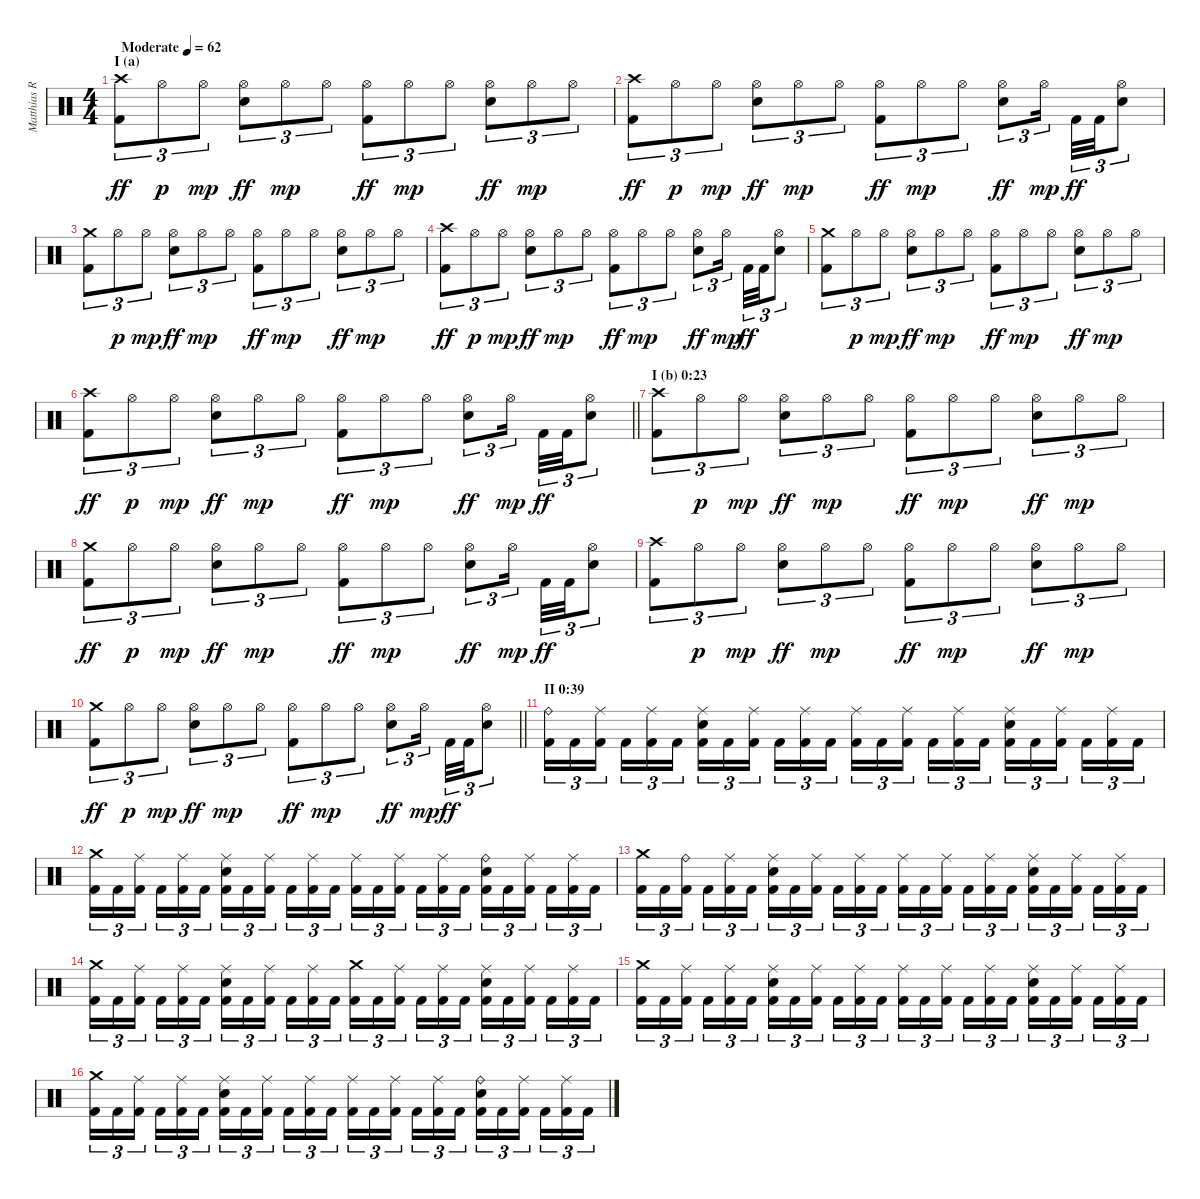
\track ("Matthias R." "Matthias R") {instrument percussion}
\staff {score}
\articulation defaults
\ts (4 4)
\section ("" "I (a)")
\tempo (62 "Moderate")
\clef neutral
\ks c
("Crash high (hit)" "Kick (hit) 2").8{tu (3 2) dy ff} "Hi-Hat (open)".8{tu (3 2) dy p} "Hi-Hat (open)".8{tu (3 2) dy mp} ("Hi-Hat (open)" "Electric Snare (hit)").8{tu (3 2) dy ff} "Hi-Hat (open)".8{tu (3 2) dy mp} "Hi-Hat (open)".8{tu (3 2)} ("Hi-Hat (open)" "Kick (hit) 2").8{tu (3 2) dy ff} "Hi-Hat (open)".8{tu (3 2) dy mp} "Hi-Hat (open)".8{tu (3 2)} ("Hi-Hat (open)" "Electric Snare (hit)").8{tu (3 2) dy ff} "Hi-Hat (open)".8{tu (3 2) dy mp} "Hi-Hat (open)".8{tu (3 2)} |
("Crash high (hit)" "Kick (hit) 2").8{tu (3 2) dy ff} "Hi-Hat (open)".8{tu (3 2) dy p} "Hi-Hat (open)".8{tu (3 2) dy mp} ("Hi-Hat (open)" "Electric Snare (hit)").8{tu (3 2) dy ff} "Hi-Hat (open)".8{tu (3 2) dy mp} "Hi-Hat (open)".8{tu (3 2)} ("Hi-Hat (open)" "Kick (hit) 2").8{tu (3 2) dy ff} "Hi-Hat (open)".8{tu (3 2) dy mp} "Hi-Hat (open)".8{tu (3 2)} ("Hi-Hat (open)" "Electric Snare (hit)").8{tu (3 2) dy ff} "Hi-Hat (open)".16{tu (3 2) dy mp beam splitsecondary} "Kick (hit) 2".32{tu (3 2) dy ff} "Kick (hit) 2".32{tu (3 2)} ("Hi-Hat (open)" "Electric Snare (hit)").8{tu (3 2)} |
("Crash medium (hit)" "Kick (hit) 2").8{tu (3 2)} "Hi-Hat (open)".8{tu (3 2) dy p} "Hi-Hat (open)".8{tu (3 2) dy mp} ("Hi-Hat (open)" "Electric Snare (hit)").8{tu (3 2) dy ff} "Hi-Hat (open)".8{tu (3 2) dy mp} "Hi-Hat (open)".8{tu (3 2)} ("Hi-Hat (open)" "Kick (hit) 2").8{tu (3 2) dy ff} "Hi-Hat (open)".8{tu (3 2) dy mp} "Hi-Hat (open)".8{tu (3 2)} ("Hi-Hat (open)" "Electric Snare (hit)").8{tu (3 2) dy ff} "Hi-Hat (open)".8{tu (3 2) dy mp} "Hi-Hat (open)".8{tu (3 2)} |
("Crash high (hit)" "Kick (hit) 2").8{tu (3 2) dy ff} "Hi-Hat (open)".8{tu (3 2) dy p} "Hi-Hat (open)".8{tu (3 2) dy mp} ("Hi-Hat (open)" "Electric Snare (hit)").8{tu (3 2) dy ff} "Hi-Hat (open)".8{tu (3 2) dy mp} "Hi-Hat (open)".8{tu (3 2)} ("Hi-Hat (open)" "Kick (hit) 2").8{tu (3 2) dy ff} "Hi-Hat (open)".8{tu (3 2) dy mp} "Hi-Hat (open)".8{tu (3 2)} ("Hi-Hat (open)" "Electric Snare (hit)").8{tu (3 2) dy ff} "Hi-Hat (open)".16{tu (3 2) dy mp beam splitsecondary} "Kick (hit) 2".32{tu (3 2) dy ff} "Kick (hit) 2".32{tu (3 2)} ("Hi-Hat (open)" "Electric Snare (hit)").8{tu (3 2)} |
("Crash medium (hit)" "Kick (hit) 2").8{tu (3 2)} "Hi-Hat (open)".8{tu (3 2) dy p} "Hi-Hat (open)".8{tu (3 2) dy mp} ("Hi-Hat (open)" "Electric Snare (hit)").8{tu (3 2) dy ff} "Hi-Hat (open)".8{tu (3 2) dy mp} "Hi-Hat (open)".8{tu (3 2)} ("Hi-Hat (open)" "Kick (hit) 2").8{tu (3 2) dy ff} "Hi-Hat (open)".8{tu (3 2) dy mp} "Hi-Hat (open)".8{tu (3 2)} ("Hi-Hat (open)" "Electric Snare (hit)").8{tu (3 2) dy ff} "Hi-Hat (open)".8{tu (3 2) dy mp} "Hi-Hat (open)".8{tu (3 2)} |
\barLineRight lightlight
("Crash high (hit)" "Kick (hit) 2").8{tu (3 2) dy ff} "Hi-Hat (open)".8{tu (3 2) dy p} "Hi-Hat (open)".8{tu (3 2) dy mp} ("Hi-Hat (open)" "Electric Snare (hit)").8{tu (3 2) dy ff} "Hi-Hat (open)".8{tu (3 2) dy mp} "Hi-Hat (open)".8{tu (3 2)} ("Hi-Hat (open)" "Kick (hit) 2").8{tu (3 2) dy ff} "Hi-Hat (open)".8{tu (3 2) dy mp} "Hi-Hat (open)".8{tu (3 2)} ("Hi-Hat (open)" "Electric Snare (hit)").8{tu (3 2) dy ff} "Hi-Hat (open)".16{tu (3 2) dy mp beam splitsecondary} "Kick (hit) 2".32{tu (3 2) dy ff} "Kick (hit) 2".32{tu (3 2)} ("Hi-Hat (open)" "Electric Snare (hit)").8{tu (3 2)} |
\section ("" "I (b) 0:23")
("Crash high (hit)" "Kick (hit) 2").8{tu (3 2)} "Hi-Hat (open)".8{tu (3 2) dy p} "Hi-Hat (open)".8{tu (3 2) dy mp} ("Hi-Hat (open)" "Electric Snare (hit)").8{tu (3 2) dy ff} "Hi-Hat (open)".8{tu (3 2) dy mp} "Hi-Hat (open)".8{tu (3 2)} ("Hi-Hat (open)" "Kick (hit) 2").8{tu (3 2) dy ff} "Hi-Hat (open)".8{tu (3 2) dy mp} "Hi-Hat (open)".8{tu (3 2)} ("Hi-Hat (open)" "Electric Snare (hit)").8{tu (3 2) dy ff} "Hi-Hat (open)".8{tu (3 2) dy mp} "Hi-Hat (open)".8{tu (3 2)} |
("Crash medium (hit)" "Kick (hit) 2").8{tu (3 2) dy ff} "Hi-Hat (open)".8{tu (3 2) dy p} "Hi-Hat (open)".8{tu (3 2) dy mp} ("Hi-Hat (open)" "Electric Snare (hit)").8{tu (3 2) dy ff} "Hi-Hat (open)".8{tu (3 2) dy mp} "Hi-Hat (open)".8{tu (3 2)} ("Hi-Hat (open)" "Kick (hit) 2").8{tu (3 2) dy ff} "Hi-Hat (open)".8{tu (3 2) dy mp} "Hi-Hat (open)".8{tu (3 2)} ("Hi-Hat (open)" "Electric Snare (hit)").8{tu (3 2) dy ff} "Hi-Hat (open)".16{tu (3 2) dy mp beam splitsecondary} "Kick (hit) 2".32{tu (3 2) dy ff} "Kick (hit) 2".32{tu (3 2)} ("Hi-Hat (open)" "Electric Snare (hit)").8{tu (3 2)} |
("Crash high (hit)" "Kick (hit) 2").8{tu (3 2)} "Hi-Hat (open)".8{tu (3 2) dy p} "Hi-Hat (open)".8{tu (3 2) dy mp} ("Hi-Hat (open)" "Electric Snare (hit)").8{tu (3 2) dy ff} "Hi-Hat (open)".8{tu (3 2) dy mp} "Hi-Hat (open)".8{tu (3 2)} ("Hi-Hat (open)" "Kick (hit) 2").8{tu (3 2) dy ff} "Hi-Hat (open)".8{tu (3 2) dy mp} "Hi-Hat (open)".8{tu (3 2)} ("Hi-Hat (open)" "Electric Snare (hit)").8{tu (3 2) dy ff} "Hi-Hat (open)".8{tu (3 2) dy mp} "Hi-Hat (open)".8{tu (3 2)} |
\barLineRight lightlight
("Crash medium (hit)" "Kick (hit) 2").8{tu (3 2) dy ff} "Hi-Hat (open)".8{tu (3 2) dy p} "Hi-Hat (open)".8{tu (3 2) dy mp} ("Hi-Hat (open)" "Electric Snare (hit)").8{tu (3 2) dy ff} "Hi-Hat (open)".8{tu (3 2) dy mp} "Hi-Hat (open)".8{tu (3 2)} ("Hi-Hat (open)" "Kick (hit) 2").8{tu (3 2) dy ff} "Hi-Hat (open)".8{tu (3 2) dy mp} "Hi-Hat (open)".8{tu (3 2)} ("Hi-Hat (open)" "Electric Snare (hit)").8{tu (3 2) dy ff} "Hi-Hat (open)".16{tu (3 2) dy mp beam splitsecondary} "Kick (hit) 2".32{tu (3 2) dy ff} "Kick (hit) 2".32{tu (3 2)} ("Hi-Hat (open)" "Electric Snare (hit)").8{tu (3 2)} |
\section ("" "II 0:39")
("Ride (bell)" "Kick (hit) 2").16{tu (3 2)} "Kick (hit) 2".16{tu (3 2)} ("Ride (middle)" "Kick (hit) 2").16{tu (3 2) beam splitsecondary} "Kick (hit) 2".16{tu (3 2)} ("Ride (middle)" "Kick (hit) 2").16{tu (3 2)} "Kick (hit) 2".16{tu (3 2)} ("Ride (middle)" "Electric Snare (hit)" "Kick (hit) 2").16{tu (3 2)} "Kick (hit) 2".16{tu (3 2)} ("Ride (middle)" "Kick (hit) 2").16{tu (3 2) beam splitsecondary} "Kick (hit) 2".16{tu (3 2)} ("Ride (middle)" "Kick (hit) 2").16{tu (3 2)} "Kick (hit) 2".16{tu (3 2)} ("Ride (middle)" "Kick (hit) 2").16{tu (3 2)} "Kick (hit) 2".16{tu (3 2)} ("Ride (middle)" "Kick (hit) 2").16{tu (3 2) beam splitsecondary} "Kick (hit) 2".16{tu (3 2)} ("Ride (middle)" "Kick (hit) 2").16{tu (3 2)} "Kick (hit) 2".16{tu (3 2)} ("Ride (middle)" "Electric Snare (hit)" "Kick (hit) 2").16{tu (3 2)} "Kick (hit) 2".16{tu (3 2)} ("Ride (middle)" "Kick (hit) 2").16{tu (3 2) beam splitsecondary} "Kick (hit) 2".16{tu (3 2)} ("Ride (middle)" "Kick (hit) 2").16{tu (3 2)} "Kick (hit) 2".16{tu (3 2)} |
("Crash medium (hit)" "Kick (hit) 2").16{tu (3 2)} "Kick (hit) 2".16{tu (3 2)} ("Ride (middle)" "Kick (hit) 2").16{tu (3 2) beam splitsecondary} "Kick (hit) 2".16{tu (3 2)} ("Ride (middle)" "Kick (hit) 2").16{tu (3 2)} "Kick (hit) 2".16{tu (3 2)} ("Ride (middle)" "Electric Snare (hit)" "Kick (hit) 2").16{tu (3 2)} "Kick (hit) 2".16{tu (3 2)} ("Ride (middle)" "Kick (hit) 2").16{tu (3 2) beam splitsecondary} "Kick (hit) 2".16{tu (3 2)} ("Ride (middle)" "Kick (hit) 2").16{tu (3 2)} "Kick (hit) 2".16{tu (3 2)} ("Ride (middle)" "Kick (hit) 2").16{tu (3 2)} "Kick (hit) 2".16{tu (3 2)} ("Ride (middle)" "Kick (hit) 2").16{tu (3 2) beam splitsecondary} "Kick (hit) 2".16{tu (3 2)} ("Ride (middle)" "Kick (hit) 2").16{tu (3 2)} "Kick (hit) 2".16{tu (3 2)} ("Ride (bell)" "Electric Snare (hit)" "Kick (hit) 2").16{tu (3 2)} "Kick (hit) 2".16{tu (3 2)} ("Ride (middle)" "Kick (hit) 2").16{tu (3 2) beam splitsecondary} "Kick (hit) 2".16{tu (3 2)} ("Ride (middle)" "Kick (hit) 2").16{tu (3 2)} "Kick (hit) 2".16{tu (3 2)} |
("Crash medium (hit)" "Kick (hit) 2").16{tu (3 2)} "Kick (hit) 2".16{tu (3 2)} ("Ride (bell)" "Kick (hit) 2").16{tu (3 2) beam splitsecondary} "Kick (hit) 2".16{tu (3 2)} ("Ride (middle)" "Kick (hit) 2").16{tu (3 2)} "Kick (hit) 2".16{tu (3 2)} ("Ride (middle)" "Electric Snare (hit)" "Kick (hit) 2").16{tu (3 2)} "Kick (hit) 2".16{tu (3 2)} ("Ride (middle)" "Kick (hit) 2").16{tu (3 2) beam splitsecondary} "Kick (hit) 2".16{tu (3 2)} ("Ride (middle)" "Kick (hit) 2").16{tu (3 2)} "Kick (hit) 2".16{tu (3 2)} ("Ride (middle)" "Kick (hit) 2").16{tu (3 2)} "Kick (hit) 2".16{tu (3 2)} ("Ride (middle)" "Kick (hit) 2").16{tu (3 2) beam splitsecondary} "Kick (hit) 2".16{tu (3 2)} ("Ride (middle)" "Kick (hit) 2").16{tu (3 2)} "Kick (hit) 2".16{tu (3 2)} ("Ride (middle)" "Electric Snare (hit)" "Kick (hit) 2").16{tu (3 2)} "Kick (hit) 2".16{tu (3 2)} ("Ride (middle)" "Kick (hit) 2").16{tu (3 2) beam splitsecondary} "Kick (hit) 2".16{tu (3 2)} ("Ride (middle)" "Kick (hit) 2").16{tu (3 2)} "Kick (hit) 2".16{tu (3 2)} |
("Crash medium (hit)" "Kick (hit) 2").16{tu (3 2)} "Kick (hit) 2".16{tu (3 2)} ("Ride (middle)" "Kick (hit) 2").16{tu (3 2) beam splitsecondary} "Kick (hit) 2".16{tu (3 2)} ("Ride (middle)" "Kick (hit) 2").16{tu (3 2)} "Kick (hit) 2".16{tu (3 2)} ("Ride (middle)" "Electric Snare (hit)" "Kick (hit) 2").16{tu (3 2)} "Kick (hit) 2".16{tu (3 2)} ("Ride (middle)" "Kick (hit) 2").16{tu (3 2) beam splitsecondary} "Kick (hit) 2".16{tu (3 2)} ("Ride (middle)" "Kick (hit) 2").16{tu (3 2)} "Kick (hit) 2".16{tu (3 2)} ("Crash medium (hit)" "Kick (hit) 2").16{tu (3 2)} "Kick (hit) 2".16{tu (3 2)} ("Ride (middle)" "Kick (hit) 2").16{tu (3 2) beam splitsecondary} "Kick (hit) 2".16{tu (3 2)} ("Ride (middle)" "Kick (hit) 2").16{tu (3 2)} "Kick (hit) 2".16{tu (3 2)} ("Ride (middle)" "Electric Snare (hit)" "Kick (hit) 2").16{tu (3 2)} "Kick (hit) 2".16{tu (3 2)} ("Ride (middle)" "Kick (hit) 2").16{tu (3 2) beam splitsecondary} "Kick (hit) 2".16{tu (3 2)} ("Ride (middle)" "Kick (hit) 2").16{tu (3 2)} "Kick (hit) 2".16{tu (3 2)} |
("Crash medium (hit)" "Kick (hit) 2").16{tu (3 2)} "Kick (hit) 2".16{tu (3 2)} ("Ride (middle)" "Kick (hit) 2").16{tu (3 2) beam splitsecondary} "Kick (hit) 2".16{tu (3 2)} ("Ride (middle)" "Kick (hit) 2").16{tu (3 2)} "Kick (hit) 2".16{tu (3 2)} ("Ride (middle)" "Electric Snare (hit)" "Kick (hit) 2").16{tu (3 2)} "Kick (hit) 2".16{tu (3 2)} ("Ride (middle)" "Kick (hit) 2").16{tu (3 2) beam splitsecondary} "Kick (hit) 2".16{tu (3 2)} ("Ride (middle)" "Kick (hit) 2").16{tu (3 2)} "Kick (hit) 2".16{tu (3 2)} ("Ride (middle)" "Kick (hit) 2").16{tu (3 2)} "Kick (hit) 2".16{tu (3 2)} ("Ride (middle)" "Kick (hit) 2").16{tu (3 2) beam splitsecondary} "Kick (hit) 2".16{tu (3 2)} ("Ride (middle)" "Kick (hit) 2").16{tu (3 2)} "Kick (hit) 2".16{tu (3 2)} ("Ride (middle)" "Electric Snare (hit)" "Kick (hit) 2").16{tu (3 2)} "Kick (hit) 2".16{tu (3 2)} ("Ride (middle)" "Kick (hit) 2").16{tu (3 2) beam splitsecondary} "Kick (hit) 2".16{tu (3 2)} ("Ride (middle)" "Kick (hit) 2").16{tu (3 2)} "Kick (hit) 2".16{tu (3 2)} |
("Crash medium (hit)" "Kick (hit) 2").16{tu (3 2)} "Kick (hit) 2".16{tu (3 2)} ("Ride (middle)" "Kick (hit) 2").16{tu (3 2) beam splitsecondary} "Kick (hit) 2".16{tu (3 2)} ("Ride (middle)" "Kick (hit) 2").16{tu (3 2)} "Kick (hit) 2".16{tu (3 2)} ("Ride (middle)" "Electric Snare (hit)" "Kick (hit) 2").16{tu (3 2)} "Kick (hit) 2".16{tu (3 2)} ("Ride (middle)" "Kick (hit) 2").16{tu (3 2) beam splitsecondary} "Kick (hit) 2".16{tu (3 2)} ("Ride (middle)" "Kick (hit) 2").16{tu (3 2)} "Kick (hit) 2".16{tu (3 2)} ("Ride (middle)" "Kick (hit) 2").16{tu (3 2)} "Kick (hit) 2".16{tu (3 2)} ("Ride (middle)" "Kick (hit) 2").16{tu (3 2) beam splitsecondary} "Kick (hit) 2".16{tu (3 2)} ("Ride (middle)" "Kick (hit) 2").16{tu (3 2)} "Kick (hit) 2".16{tu (3 2)} ("Ride (bell)" "Electric Snare (hit)" "Kick (hit) 2").16{tu (3 2)} "Kick (hit) 2".16{tu (3 2)} ("Ride (middle)" "Kick (hit) 2").16{tu (3 2) beam splitsecondary} "Kick (hit) 2".16{tu (3 2)} ("Ride (middle)" "Kick (hit) 2").16{tu (3 2)} "Kick (hit) 2".16{tu (3 2)}
